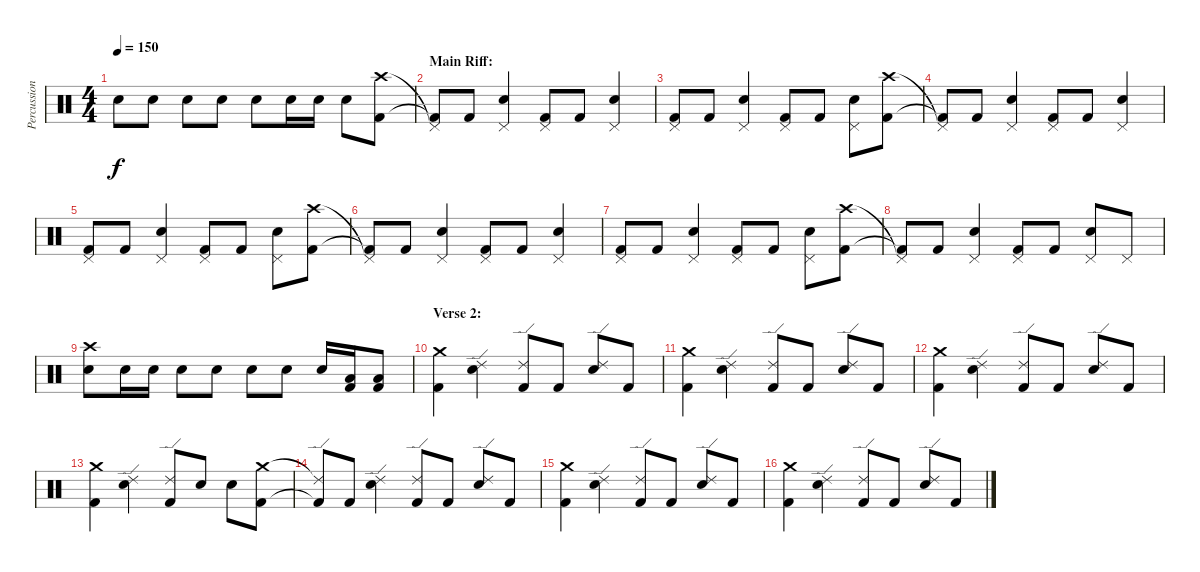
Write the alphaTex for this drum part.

\track ("Percussion" "Percussion") {instrument percussion}
\staff {score}
\articulation defaults
\ts (4 4)
\tempo 150
\clef neutral
\ks c "Snare (hit) 2".8{dy f} "Snare (hit) 2".8 "Snare (hit) 2".8 "Snare (hit) 2".8 "Snare (hit) 2".8 "Snare (hit) 2".16 "Snare (hit) 2".16 "Snare (hit) 2".8
("Crash high (hit)" "Kick (hit) 2").8 |
\section ("" "Main Riff:")
("Pedal Hi-Hat (hit)"{t} "Kick (hit) 2"{t}).8 "Kick (hit) 2".8 ("Pedal Hi-Hat (hit)" "Snare (hit) 2").4 ("Pedal Hi-Hat (hit)" "Kick (hit) 2").8 "Kick (hit) 2".8 ("Pedal Hi-Hat (hit)" "Snare (hit) 2").4 |
("Pedal Hi-Hat (hit)" "Kick (hit) 2").8 "Kick (hit) 2".8 ("Pedal Hi-Hat (hit)" "Snare (hit) 2").4 ("Pedal Hi-Hat (hit)" "Kick (hit) 2").8 "Kick (hit) 2".8 ("Pedal Hi-Hat (hit)" "Snare (hit) 2").8 ("Crash high (hit)" "Kick (hit) 2").8 |
("Pedal Hi-Hat (hit)"{t} "Kick (hit) 2"{t}).8 "Kick (hit) 2".8 ("Pedal Hi-Hat (hit)" "Snare (hit) 2").4 ("Pedal Hi-Hat (hit)" "Kick (hit) 2").8 "Kick (hit) 2".8 ("Pedal Hi-Hat (hit)" "Snare (hit) 2").4 |
("Pedal Hi-Hat (hit)" "Kick (hit) 2").8 "Kick (hit) 2".8 ("Pedal Hi-Hat (hit)" "Snare (hit) 2").4 ("Pedal Hi-Hat (hit)" "Kick (hit) 2").8 "Kick (hit) 2".8 ("Pedal Hi-Hat (hit)" "Snare (hit) 2").8 ("Crash high (hit)" "Kick (hit) 2").8 |
("Pedal Hi-Hat (hit)"{t} "Kick (hit) 2"{t}).8 "Kick (hit) 2".8 ("Pedal Hi-Hat (hit)" "Snare (hit) 2").4 ("Pedal Hi-Hat (hit)" "Kick (hit) 2").8 "Kick (hit) 2".8 ("Pedal Hi-Hat (hit)" "Snare (hit) 2").4 |
("Pedal Hi-Hat (hit)" "Kick (hit) 2").8 "Kick (hit) 2".8 ("Pedal Hi-Hat (hit)" "Snare (hit) 2").4 ("Pedal Hi-Hat (hit)" "Kick (hit) 2").8 "Kick (hit) 2".8 ("Pedal Hi-Hat (hit)" "Snare (hit) 2").8 ("Crash high (hit)" "Kick (hit) 2").8 |
("Pedal Hi-Hat (hit)"{t} "Kick (hit) 2"{t}).8 "Kick (hit) 2".8 ("Pedal Hi-Hat (hit)" "Snare (hit) 2").4 ("Pedal Hi-Hat (hit)" "Kick (hit) 2").8 "Kick (hit) 2".8 ("Pedal Hi-Hat (hit)" "Snare (hit) 2").8 "Pedal Hi-Hat (hit)".8 |
("Crash high (hit)" "Snare (hit) 2").8 "Snare (hit) 2".16 "Snare (hit) 2".16 "Snare (hit) 2".8 "Snare (hit) 2".8 "Snare (hit) 2".8 "Snare (hit) 2".8 "Snare (hit) 2".16 ("Low Floor Tom (hit)" "Kick (hit) 2").16 ("Low Floor Tom (hit)" "Kick (hit) 2").8 |
\section ("" "Verse 2:")
("Crash medium (hit)" "Kick (hit) 2").4 ("Ride (edge) 2" "Snare (hit) 2").4 ("Ride (edge) 2" "Kick (hit) 2").8 "Kick (hit) 2".8 ("Ride (edge) 2" "Snare (hit) 2").8 "Kick (hit) 2".8 |
("Crash medium (hit)" "Kick (hit) 2").4 ("Ride (edge) 2" "Snare (hit) 2").4 ("Ride (edge) 2" "Kick (hit) 2").8 "Kick (hit) 2".8 ("Ride (edge) 2" "Snare (hit) 2").8 "Kick (hit) 2".8 |
("Crash medium (hit)" "Kick (hit) 2").4 ("Ride (edge) 2" "Snare (hit) 2").4 ("Ride (edge) 2" "Kick (hit) 2").8 "Kick (hit) 2".8 ("Ride (edge) 2" "Snare (hit) 2").8 "Kick (hit) 2".8 |
("Crash medium (hit)" "Kick (hit) 2").4 ("Ride (edge) 2" "Snare (hit) 2").4 ("Ride (edge) 2" "Kick (hit) 2").8 "Snare (hit) 2".8 "Snare (hit) 2".8 ("Crash medium (hit)" "Kick (hit) 2").8 |
("Ride (edge) 2"{t} "Kick (hit) 2"{t}).8 "Kick (hit) 2".8 ("Ride (edge) 2" "Snare (hit) 2").4 ("Ride (edge) 2" "Kick (hit) 2").8 "Kick (hit) 2".8 ("Ride (edge) 2" "Snare (hit) 2").8 "Kick (hit) 2".8 |
("Crash medium (hit)" "Kick (hit) 2").4 ("Ride (edge) 2" "Snare (hit) 2").4 ("Ride (edge) 2" "Kick (hit) 2").8 "Kick (hit) 2".8 ("Ride (edge) 2" "Snare (hit) 2").8 "Kick (hit) 2".8 |
("Crash medium (hit)" "Kick (hit) 2").4 ("Ride (edge) 2" "Snare (hit) 2").4 ("Ride (edge) 2" "Kick (hit) 2").8 "Kick (hit) 2".8 ("Ride (edge) 2" "Snare (hit) 2").8 "Kick (hit) 2".8
